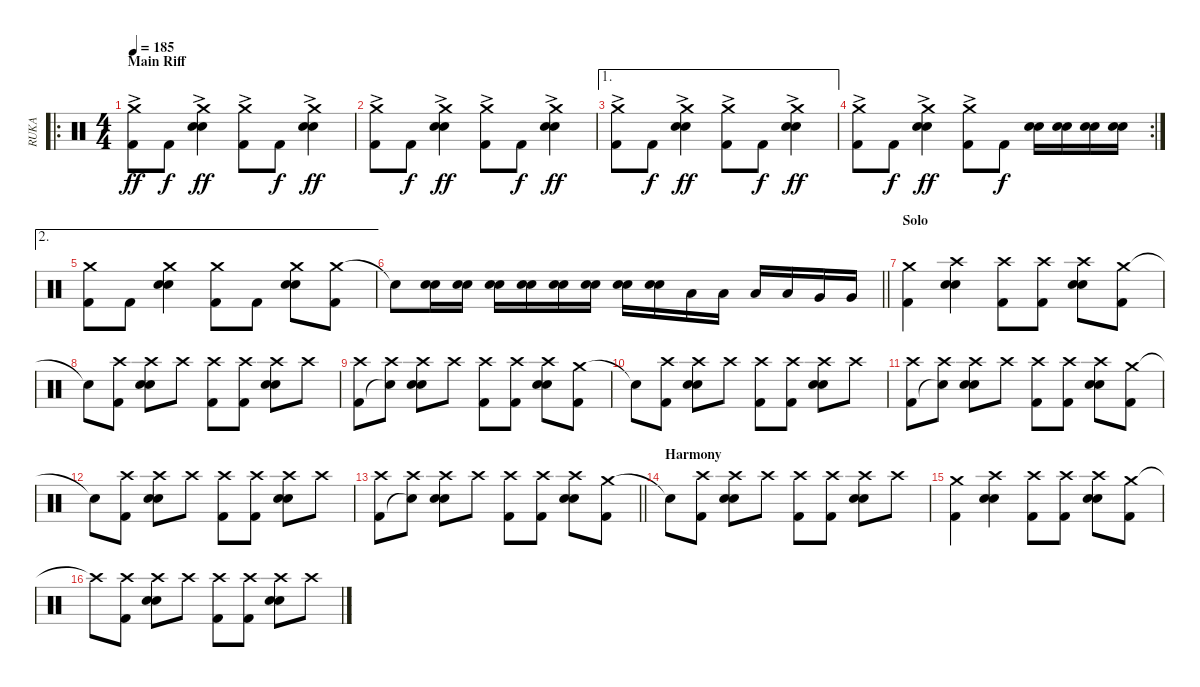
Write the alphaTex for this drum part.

\track ("RUKA" "RUKA") {instrument percussion}
\staff {score}
\articulation defaults
\ro
\ts (4 4)
\section ("" "Main Riff")
\tempo 185
\clef neutral
\ks c
("Crash medium (hit)"{ac} "Kick (hit) 2").8{dy ff} "Kick (hit) 2".8{dy f} ("Crash medium (hit)"{ac} "Snare (hit) 2" "Electric Snare (hit)").4{dy ff} ("Crash medium (hit)"{ac} "Kick (hit) 2").8 "Kick (hit) 2".8{dy f} ("Crash medium (hit)"{ac} "Snare (hit) 2" "Electric Snare (hit)").4{dy ff} |
("Crash medium (hit)"{ac} "Kick (hit) 2").8 "Kick (hit) 2".8{dy f} ("Crash medium (hit)"{ac} "Snare (hit) 2" "Electric Snare (hit)").4{dy ff} ("Crash medium (hit)"{ac} "Kick (hit) 2").8 "Kick (hit) 2".8{dy f} ("Crash medium (hit)"{ac} "Snare (hit) 2" "Electric Snare (hit)").4{dy ff} |
\ae 1
("Crash medium (hit)"{ac} "Kick (hit) 2").8 "Kick (hit) 2".8{dy f} ("Crash medium (hit)"{ac} "Snare (hit) 2" "Electric Snare (hit)").4{dy ff} ("Crash medium (hit)"{ac} "Kick (hit) 2").8 "Kick (hit) 2".8{dy f} ("Crash medium (hit)"{ac} "Snare (hit) 2" "Electric Snare (hit)").4{dy ff} |
\rc 2
("Crash medium (hit)"{ac} "Kick (hit) 2").8 "Kick (hit) 2".8{dy f} ("Crash medium (hit)"{ac} "Snare (hit) 2" "Electric Snare (hit)").4{dy ff} ("Crash medium (hit)"{ac} "Kick (hit) 2").8 "Kick (hit) 2".8{dy f} ("Snare (hit) 2" "Electric Snare (hit)").16 ("Snare (hit) 2" "Electric Snare (hit)").16 ("Snare (hit) 2" "Electric Snare (hit)").16 ("Snare (hit) 2" "Electric Snare (hit)").16 |
\ae 2
("Crash medium (hit)" "Kick (hit) 2").8 "Kick (hit) 2".8 ("Crash medium (hit)" "Snare (hit) 2" "Electric Snare (hit)").4 ("Crash medium (hit)" "Kick (hit) 2").8 "Kick (hit) 2".8 ("Crash medium (hit)" "Snare (hit) 2" "Electric Snare (hit)").8 ("Crash medium (hit)" "Kick (hit) 2").8 |
\barLineRight lightlight "Snare (hit)"{t}.8
("Snare (hit) 2" "Electric Snare (hit)").16 ("Snare (hit) 2" "Electric Snare (hit)").16 ("Snare (hit) 2" "Electric Snare (hit)").16 ("Snare (hit) 2" "Electric Snare (hit)").16 ("Snare (hit) 2" "Electric Snare (hit)").16 ("Snare (hit) 2" "Electric Snare (hit)").16 ("Snare (hit) 2" "Electric Snare (hit)").16 ("Snare (hit) 2" "Electric Snare (hit)").16 "Low Tom (hit)".16 "Low Tom (hit)".16 "Low Tom (hit)".16 "Low Tom (hit)".16 "Very Low Tom (hit)".16 "Very Low Tom (hit)".16 |
\section ("" "Solo")
("Crash medium (hit)" "Kick (hit) 2").4 ("Crash high (hit)" "Snare (hit) 2" "Electric Snare (hit)").4 ("Crash high (hit)" "Kick (hit) 2").8 ("Crash high (hit)" "Kick (hit) 2").8 ("Crash high (hit)" "Snare (hit) 2" "Electric Snare (hit)").8 ("Crash medium (hit)" "Kick (hit) 2").8 |
"Snare (hit)"{t}.8 ("Crash high (hit)" "Kick (hit) 2").8 ("Crash high (hit)" "Snare (hit) 2" "Electric Snare (hit)").8 "Crash high (hit)".8 ("Crash high (hit)" "Kick (hit) 2").8 ("Crash high (hit)" "Kick (hit) 2").8 ("Crash high (hit)" "Snare (hit) 2" "Electric Snare (hit)").8 "Crash high (hit)".8 |
("Crash high (hit)" "Kick (hit) 2").8 ("Crash high (hit)" "Snare (hit)"{t}).8 ("Crash high (hit)" "Snare (hit) 2" "Electric Snare (hit)").8 "Crash high (hit)".8 ("Crash high (hit)" "Kick (hit) 2").8 ("Crash high (hit)" "Kick (hit) 2").8 ("Crash high (hit)" "Snare (hit) 2" "Electric Snare (hit)").8 ("Crash medium (hit)" "Kick (hit) 2").8 |
"Snare (hit)"{t}.8 ("Crash high (hit)" "Kick (hit) 2").8 ("Crash high (hit)" "Snare (hit) 2" "Electric Snare (hit)").8 "Crash high (hit)".8 ("Crash high (hit)" "Kick (hit) 2").8 ("Crash high (hit)" "Kick (hit) 2").8 ("Crash high (hit)" "Snare (hit) 2" "Electric Snare (hit)").8 "Crash high (hit)".8 |
("Crash high (hit)" "Kick (hit) 2").8 ("Crash high (hit)" "Snare (hit)"{t}).8 ("Crash high (hit)" "Snare (hit) 2" "Electric Snare (hit)").8 "Crash high (hit)".8 ("Crash high (hit)" "Kick (hit) 2").8 ("Crash high (hit)" "Kick (hit) 2").8 ("Crash high (hit)" "Snare (hit) 2" "Electric Snare (hit)").8 ("Crash medium (hit)" "Kick (hit) 2").8 |
"Snare (hit)"{t}.8 ("Crash high (hit)" "Kick (hit) 2").8 ("Crash high (hit)" "Snare (hit) 2" "Electric Snare (hit)").8 "Crash high (hit)".8 ("Crash high (hit)" "Kick (hit) 2").8 ("Crash high (hit)" "Kick (hit) 2").8 ("Crash high (hit)" "Snare (hit) 2" "Electric Snare (hit)").8 "Crash high (hit)".8 |
\barLineRight lightlight
("Crash high (hit)" "Kick (hit) 2").8 ("Crash high (hit)" "Snare (hit)"{t}).8 ("Crash high (hit)" "Snare (hit) 2" "Electric Snare (hit)").8 "Crash high (hit)".8 ("Crash high (hit)" "Kick (hit) 2").8 ("Crash high (hit)" "Kick (hit) 2").8 ("Crash high (hit)" "Snare (hit) 2" "Electric Snare (hit)").8 ("Crash medium (hit)" "Kick (hit) 2").8 |
\section ("" "Harmony")
"Snare (hit)"{t}.8 ("Crash high (hit)" "Kick (hit) 2").8 ("Crash high (hit)" "Snare (hit) 2" "Electric Snare (hit)").8 "Crash high (hit)".8 ("Crash high (hit)" "Kick (hit) 2").8 ("Crash high (hit)" "Kick (hit) 2").8 ("Crash high (hit)" "Snare (hit) 2" "Electric Snare (hit)").8 "Crash high (hit)".8 |
("Crash medium (hit)" "Kick (hit) 2").4 ("Crash high (hit)" "Snare (hit) 2" "Electric Snare (hit)").4 ("Crash high (hit)" "Kick (hit) 2").8 ("Crash high (hit)" "Kick (hit) 2").8 ("Crash high (hit)" "Snare (hit) 2" "Electric Snare (hit)").8 ("Crash medium (hit)" "Kick (hit) 2").8 |
"Crash high (hit)"{t}.8 ("Crash high (hit)" "Kick (hit) 2").8 ("Crash high (hit)" "Snare (hit) 2" "Electric Snare (hit)").8 "Crash high (hit)".8 ("Crash high (hit)" "Kick (hit) 2").8 ("Crash high (hit)" "Kick (hit) 2").8 ("Crash high (hit)" "Snare (hit) 2" "Electric Snare (hit)").8 "Crash high (hit)".8
